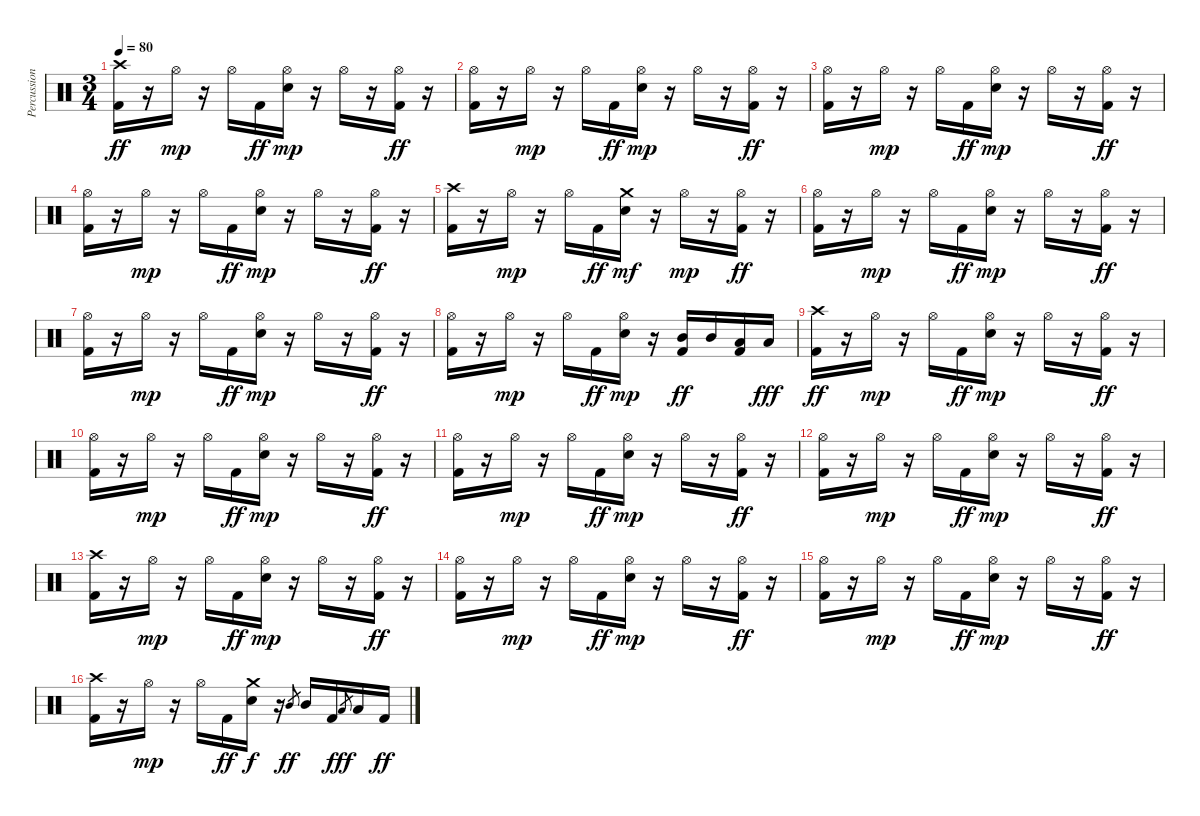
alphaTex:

\track ("Percussion" "Percussion") {instrument percussion}
\staff {score}
\articulation defaults
\ts (3 4)
\section ("" "")
\tempo 80
\clef neutral
\ks c
("Crash high (hit)" "Kick (hit) 2").16{dy ff} r.16 "Hi-Hat (open)".16{dy mp} r.16 "Hi-Hat (open)".16 "Kick (hit) 2".16{dy ff} ("Hi-Hat (open)" "Electric Snare (hit)").16{dy mp} r.16 "Hi-Hat (open)".16 r.16 ("Hi-Hat (open)" "Kick (hit) 2").16{dy ff} r.16 |
("Hi-Hat (open)" "Kick (hit) 2").16 r.16 "Hi-Hat (open)".16{dy mp} r.16 "Hi-Hat (open)".16 "Kick (hit) 2".16{dy ff} ("Hi-Hat (open)" "Electric Snare (hit)").16{dy mp} r.16 "Hi-Hat (open)".16 r.16 ("Hi-Hat (open)" "Kick (hit) 2").16{dy ff} r.16 |
("Hi-Hat (open)" "Kick (hit) 2").16 r.16 "Hi-Hat (open)".16{dy mp} r.16 "Hi-Hat (open)".16 "Kick (hit) 2".16{dy ff} ("Hi-Hat (open)" "Electric Snare (hit)").16{dy mp} r.16 "Hi-Hat (open)".16 r.16 ("Hi-Hat (open)" "Kick (hit) 2").16{dy ff} r.16 |
("Hi-Hat (open)" "Kick (hit) 2").16 r.16 "Hi-Hat (open)".16{dy mp} r.16 "Hi-Hat (open)".16 "Kick (hit) 2".16{dy ff} ("Hi-Hat (open)" "Electric Snare (hit)").16{dy mp} r.16 "Hi-Hat (open)".16 r.16 ("Hi-Hat (open)" "Kick (hit) 2").16{dy ff} r.16 |
("Crash high (hit)" "Kick (hit) 2").16 r.16 "Hi-Hat (open)".16{dy mp} r.16 "Hi-Hat (open)".16 "Kick (hit) 2".16{dy ff} ("Crash medium (hit)" "Electric Snare (hit)").16{dy mf} r.16 "Hi-Hat (open)".16{dy mp} r.16 ("Hi-Hat (open)" "Kick (hit) 2").16{dy ff} r.16 |
("Hi-Hat (open)" "Kick (hit) 2").16 r.16 "Hi-Hat (open)".16{dy mp} r.16 "Hi-Hat (open)".16 "Kick (hit) 2".16{dy ff} ("Hi-Hat (open)" "Electric Snare (hit)").16{dy mp} r.16 "Hi-Hat (open)".16 r.16 ("Hi-Hat (open)" "Kick (hit) 2").16{dy ff} r.16 |
("Hi-Hat (open)" "Kick (hit) 2").16 r.16 "Hi-Hat (open)".16{dy mp} r.16 "Hi-Hat (open)".16 "Kick (hit) 2".16{dy ff} ("Hi-Hat (open)" "Electric Snare (hit)").16{dy mp} r.16 "Hi-Hat (open)".16 r.16 ("Hi-Hat (open)" "Kick (hit) 2").16{dy ff} r.16 |
("Hi-Hat (open)" "Kick (hit) 2").16 r.16 "Hi-Hat (open)".16{dy mp} r.16 "Hi-Hat (open)".16 "Kick (hit) 2".16{dy ff} ("Hi-Hat (open)" "Electric Snare (hit)").16{dy mp} r.16 ("Mid Tom (hit)" "Kick (hit) 2").16{dy ff} "Mid Tom (hit)".16 ("Low Tom (hit)" "Kick (hit) 2").16 "Low Tom (hit)".16{dy fff} |
("Crash high (hit)" "Kick (hit) 2").16{dy ff} r.16 "Hi-Hat (open)".16{dy mp} r.16 "Hi-Hat (open)".16 "Kick (hit) 2".16{dy ff} ("Hi-Hat (open)" "Electric Snare (hit)").16{dy mp} r.16 "Hi-Hat (open)".16 r.16 ("Hi-Hat (open)" "Kick (hit) 2").16{dy ff} r.16 |
("Hi-Hat (open)" "Kick (hit) 2").16 r.16 "Hi-Hat (open)".16{dy mp} r.16 "Hi-Hat (open)".16 "Kick (hit) 2".16{dy ff} ("Hi-Hat (open)" "Electric Snare (hit)").16{dy mp} r.16 "Hi-Hat (open)".16 r.16 ("Hi-Hat (open)" "Kick (hit) 2").16{dy ff} r.16 |
("Hi-Hat (open)" "Kick (hit) 2").16 r.16 "Hi-Hat (open)".16{dy mp} r.16 "Hi-Hat (open)".16 "Kick (hit) 2".16{dy ff} ("Hi-Hat (open)" "Electric Snare (hit)").16{dy mp} r.16 "Hi-Hat (open)".16 r.16 ("Hi-Hat (open)" "Kick (hit) 2").16{dy ff} r.16 |
("Hi-Hat (open)" "Kick (hit) 2").16 r.16 "Hi-Hat (open)".16{dy mp} r.16 "Hi-Hat (open)".16 "Kick (hit) 2".16{dy ff} ("Hi-Hat (open)" "Electric Snare (hit)").16{dy mp} r.16 "Hi-Hat (open)".16 r.16 ("Hi-Hat (open)" "Kick (hit) 2").16{dy ff} r.16 |
("Crash high (hit)" "Kick (hit) 2").16 r.16 "Hi-Hat (open)".16{dy mp} r.16 "Hi-Hat (open)".16 "Kick (hit) 2".16{dy ff} ("Hi-Hat (open)" "Electric Snare (hit)").16{dy mp} r.16 "Hi-Hat (open)".16 r.16 ("Hi-Hat (open)" "Kick (hit) 2").16{dy ff} r.16 |
("Hi-Hat (open)" "Kick (hit) 2").16 r.16 "Hi-Hat (open)".16{dy mp} r.16 "Hi-Hat (open)".16 "Kick (hit) 2".16{dy ff} ("Hi-Hat (open)" "Electric Snare (hit)").16{dy mp} r.16 "Hi-Hat (open)".16 r.16 ("Hi-Hat (open)" "Kick (hit) 2").16{dy ff} r.16 |
("Hi-Hat (open)" "Kick (hit) 2").16 r.16 "Hi-Hat (open)".16{dy mp} r.16 "Hi-Hat (open)".16 "Kick (hit) 2".16{dy ff} ("Hi-Hat (open)" "Electric Snare (hit)").16{dy mp} r.16 "Hi-Hat (open)".16 r.16 ("Hi-Hat (open)" "Kick (hit) 2").16{dy ff} r.16 |
("Crash high (hit)" "Kick (hit) 2").16 r.16 "Hi-Hat (open)".16{dy mp} r.16 "Hi-Hat (open)".16 "Kick (hit) 2".16{dy ff} ("Crash medium (hit)" "Electric Snare (hit)").16{dy f} r.16 "Mid Tom (hit)".8{gr dy ff} "Mid Tom (hit)".16 "Kick (hit) 2".16 "Low Tom (hit)".8{gr dy fff} "Low Tom (hit)".16 "Kick (hit) 2".16{dy ff}
